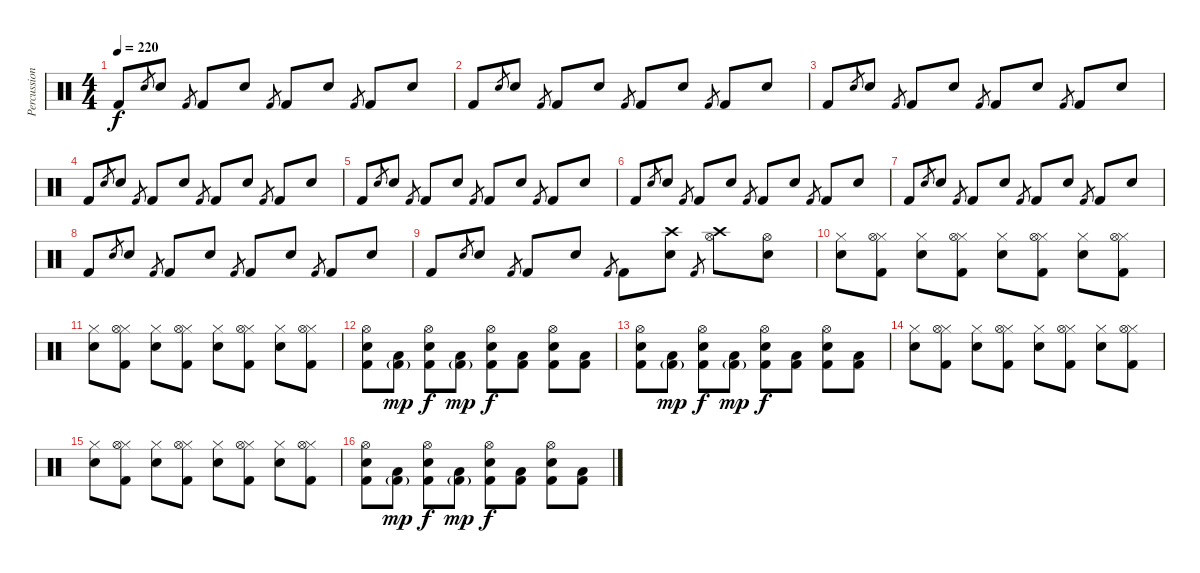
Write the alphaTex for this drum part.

\track ("Percussions" "Percussion") {instrument percussion}
\staff {score}
\articulation defaults
\ts (4 4)
\tempo 220
\clef neutral
\ks c "Kick (hit) 2".8{dy f} "Electric Snare (hit)".8{gr} "Electric Snare (hit)".8 "Kick (hit) 2".8{gr} "Kick (hit) 2".8 "Electric Snare (hit)".8 "Kick (hit) 2".8{gr} "Kick (hit) 2".8 "Electric Snare (hit)".8 "Kick (hit) 2".8{gr} "Kick (hit) 2".8 "Electric Snare (hit)".8
|
"Kick (hit) 2".8 "Electric Snare (hit)".8{gr} "Electric Snare (hit)".8 "Kick (hit) 2".8{gr} "Kick (hit) 2".8 "Electric Snare (hit)".8 "Kick (hit) 2".8{gr} "Kick (hit) 2".8 "Electric Snare (hit)".8 "Kick (hit) 2".8{gr} "Kick (hit) 2".8 "Electric Snare (hit)".8 |
"Kick (hit) 2".8 "Electric Snare (hit)".8{gr} "Electric Snare (hit)".8 "Kick (hit) 2".8{gr} "Kick (hit) 2".8 "Electric Snare (hit)".8 "Kick (hit) 2".8{gr} "Kick (hit) 2".8 "Electric Snare (hit)".8 "Kick (hit) 2".8{gr} "Kick (hit) 2".8 "Electric Snare (hit)".8 |
"Kick (hit) 2".8 "Electric Snare (hit)".8{gr} "Electric Snare (hit)".8 "Kick (hit) 2".8{gr} "Kick (hit) 2".8 "Electric Snare (hit)".8 "Kick (hit) 2".8{gr} "Kick (hit) 2".8 "Electric Snare (hit)".8 "Kick (hit) 2".8{gr} "Kick (hit) 2".8 "Electric Snare (hit)".8 |
"Kick (hit) 2".8 "Electric Snare (hit)".8{gr} "Electric Snare (hit)".8 "Kick (hit) 2".8{gr} "Kick (hit) 2".8 "Electric Snare (hit)".8 "Kick (hit) 2".8{gr} "Kick (hit) 2".8 "Electric Snare (hit)".8 "Kick (hit) 2".8{gr} "Kick (hit) 2".8 "Electric Snare (hit)".8 |
"Kick (hit) 2".8 "Electric Snare (hit)".8{gr} "Electric Snare (hit)".8 "Kick (hit) 2".8{gr} "Kick (hit) 2".8 "Electric Snare (hit)".8 "Kick (hit) 2".8{gr} "Kick (hit) 2".8 "Electric Snare (hit)".8 "Kick (hit) 2".8{gr} "Kick (hit) 2".8 "Electric Snare (hit)".8 |
"Kick (hit) 2".8 "Electric Snare (hit)".8{gr} "Electric Snare (hit)".8 "Kick (hit) 2".8{gr} "Kick (hit) 2".8 "Electric Snare (hit)".8 "Kick (hit) 2".8{gr} "Kick (hit) 2".8 "Electric Snare (hit)".8 "Kick (hit) 2".8{gr} "Kick (hit) 2".8 "Electric Snare (hit)".8 |
"Kick (hit) 2".8 "Electric Snare (hit)".8{gr} "Electric Snare (hit)".8 "Kick (hit) 2".8{gr} "Kick (hit) 2".8 "Electric Snare (hit)".8 "Kick (hit) 2".8{gr} "Kick (hit) 2".8 "Electric Snare (hit)".8 "Kick (hit) 2".8{gr} "Kick (hit) 2".8 "Electric Snare (hit)".8 |
"Kick (hit) 2".8 "Electric Snare (hit)".8{gr} "Electric Snare (hit)".8 "Kick (hit) 2".8{gr} "Kick (hit) 2".8 "Electric Snare (hit)".8 "Kick (hit) 2".8{gr} "Kick (hit) 2".8 ("Crash high (hit)" "Electric Snare (hit)").8 "Kick (hit) 2".8{gr} ("Hi-Hat (open)" "Crash high (hit)").8 ("Hi-Hat (open)" "Electric Snare (hit)").8 |
("Hi-Hat (closed)" "Electric Snare (hit)").8 ("Hi-Hat (closed)" "Kick (hit) 2" "Hi-Hat (open)").8 ("Hi-Hat (closed)" "Electric Snare (hit)").8 ("Hi-Hat (closed)" "Kick (hit) 2" "Hi-Hat (open)").8 ("Hi-Hat (closed)" "Electric Snare (hit)").8 ("Hi-Hat (closed)" "Kick (hit) 2" "Hi-Hat (open)").8 ("Hi-Hat (closed)" "Electric Snare (hit)").8 ("Hi-Hat (closed)" "Kick (hit) 2" "Hi-Hat (open)").8 |
("Hi-Hat (closed)" "Electric Snare (hit)").8 ("Hi-Hat (closed)" "Kick (hit) 2" "Hi-Hat (open)").8 ("Hi-Hat (closed)" "Electric Snare (hit)").8 ("Hi-Hat (closed)" "Kick (hit) 2" "Hi-Hat (open)").8 ("Hi-Hat (closed)" "Electric Snare (hit)").8 ("Hi-Hat (closed)" "Kick (hit) 2" "Hi-Hat (open)").8 ("Hi-Hat (closed)" "Electric Snare (hit)").8 ("Hi-Hat (closed)" "Kick (hit) 2" "Hi-Hat (open)").8 |
("Hi-Hat (open)" "Electric Snare (hit)" "Kick (hit) 2").8 ("Low Tom (hit)" "Kick (hit) 2"{g}).8{dy mp} ("Hi-Hat (open)" "Electric Snare (hit)" "Kick (hit) 2").8{dy f} ("Low Tom (hit)" "Kick (hit) 2"{g}).8{dy mp} ("Hi-Hat (open)" "Electric Snare (hit)" "Kick (hit) 2").8{dy f} ("Low Tom (hit)" "Kick (hit) 2").8 ("Hi-Hat (open)" "Electric Snare (hit)" "Kick (hit) 2").8 ("Low Tom (hit)" "Kick (hit) 2").8 |
("Hi-Hat (open)" "Electric Snare (hit)" "Kick (hit) 2").8 ("Low Tom (hit)" "Kick (hit) 2"{g}).8{dy mp} ("Hi-Hat (open)" "Electric Snare (hit)" "Kick (hit) 2").8{dy f} ("Low Tom (hit)" "Kick (hit) 2"{g}).8{dy mp} ("Hi-Hat (open)" "Electric Snare (hit)" "Kick (hit) 2").8{dy f} ("Low Tom (hit)" "Kick (hit) 2").8 ("Hi-Hat (open)" "Electric Snare (hit)" "Kick (hit) 2").8 ("Low Tom (hit)" "Kick (hit) 2").8 |
("Hi-Hat (closed)" "Electric Snare (hit)").8 ("Hi-Hat (closed)" "Kick (hit) 2" "Hi-Hat (open)").8 ("Hi-Hat (closed)" "Electric Snare (hit)").8 ("Hi-Hat (closed)" "Kick (hit) 2" "Hi-Hat (open)").8 ("Hi-Hat (closed)" "Electric Snare (hit)").8 ("Hi-Hat (closed)" "Kick (hit) 2" "Hi-Hat (open)").8 ("Hi-Hat (closed)" "Electric Snare (hit)").8 ("Hi-Hat (closed)" "Kick (hit) 2" "Hi-Hat (open)").8 |
("Hi-Hat (closed)" "Electric Snare (hit)").8 ("Hi-Hat (closed)" "Kick (hit) 2" "Hi-Hat (open)").8 ("Hi-Hat (closed)" "Electric Snare (hit)").8 ("Hi-Hat (closed)" "Kick (hit) 2" "Hi-Hat (open)").8 ("Hi-Hat (closed)" "Electric Snare (hit)").8 ("Hi-Hat (closed)" "Kick (hit) 2" "Hi-Hat (open)").8 ("Hi-Hat (closed)" "Electric Snare (hit)").8 ("Hi-Hat (closed)" "Kick (hit) 2" "Hi-Hat (open)").8 |
("Hi-Hat (open)" "Electric Snare (hit)" "Kick (hit) 2").8 ("Low Tom (hit)" "Kick (hit) 2"{g}).8{dy mp} ("Hi-Hat (open)" "Electric Snare (hit)" "Kick (hit) 2").8{dy f} ("Low Tom (hit)" "Kick (hit) 2"{g}).8{dy mp} ("Hi-Hat (open)" "Electric Snare (hit)" "Kick (hit) 2").8{dy f} ("Low Tom (hit)" "Kick (hit) 2").8 ("Hi-Hat (open)" "Electric Snare (hit)" "Kick (hit) 2").8 ("Low Tom (hit)" "Kick (hit) 2").8
